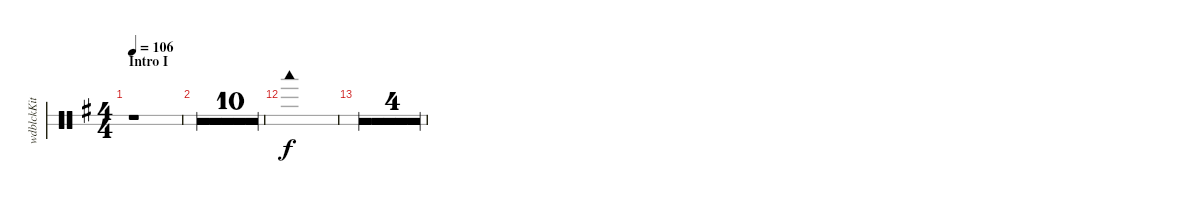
\defaultSystemsLayout 4
\bracketExtendMode groupsimilarinstruments
\otherSystemsTrackNameOrientation horizontal
\track ("Woodblock" "wdblckKit") {multiBarRest instrument percussion}
\staff {score 2}
\articulation defaults
\ts (4 4)
\section ("" "Intro I")
\tempo 106
\clef neutral
\ks g
r.1{dy f} |
r.1 |
r.1 |
r.1 |
r.1 |
r.1 |
r.1 |
r.1 |
r.1 |
r.1 |
r.1 |
"Woodblock low (hit)"{acc forcenatural}.1 |
r.1 |
r.1 |
r.1 |
r.1
